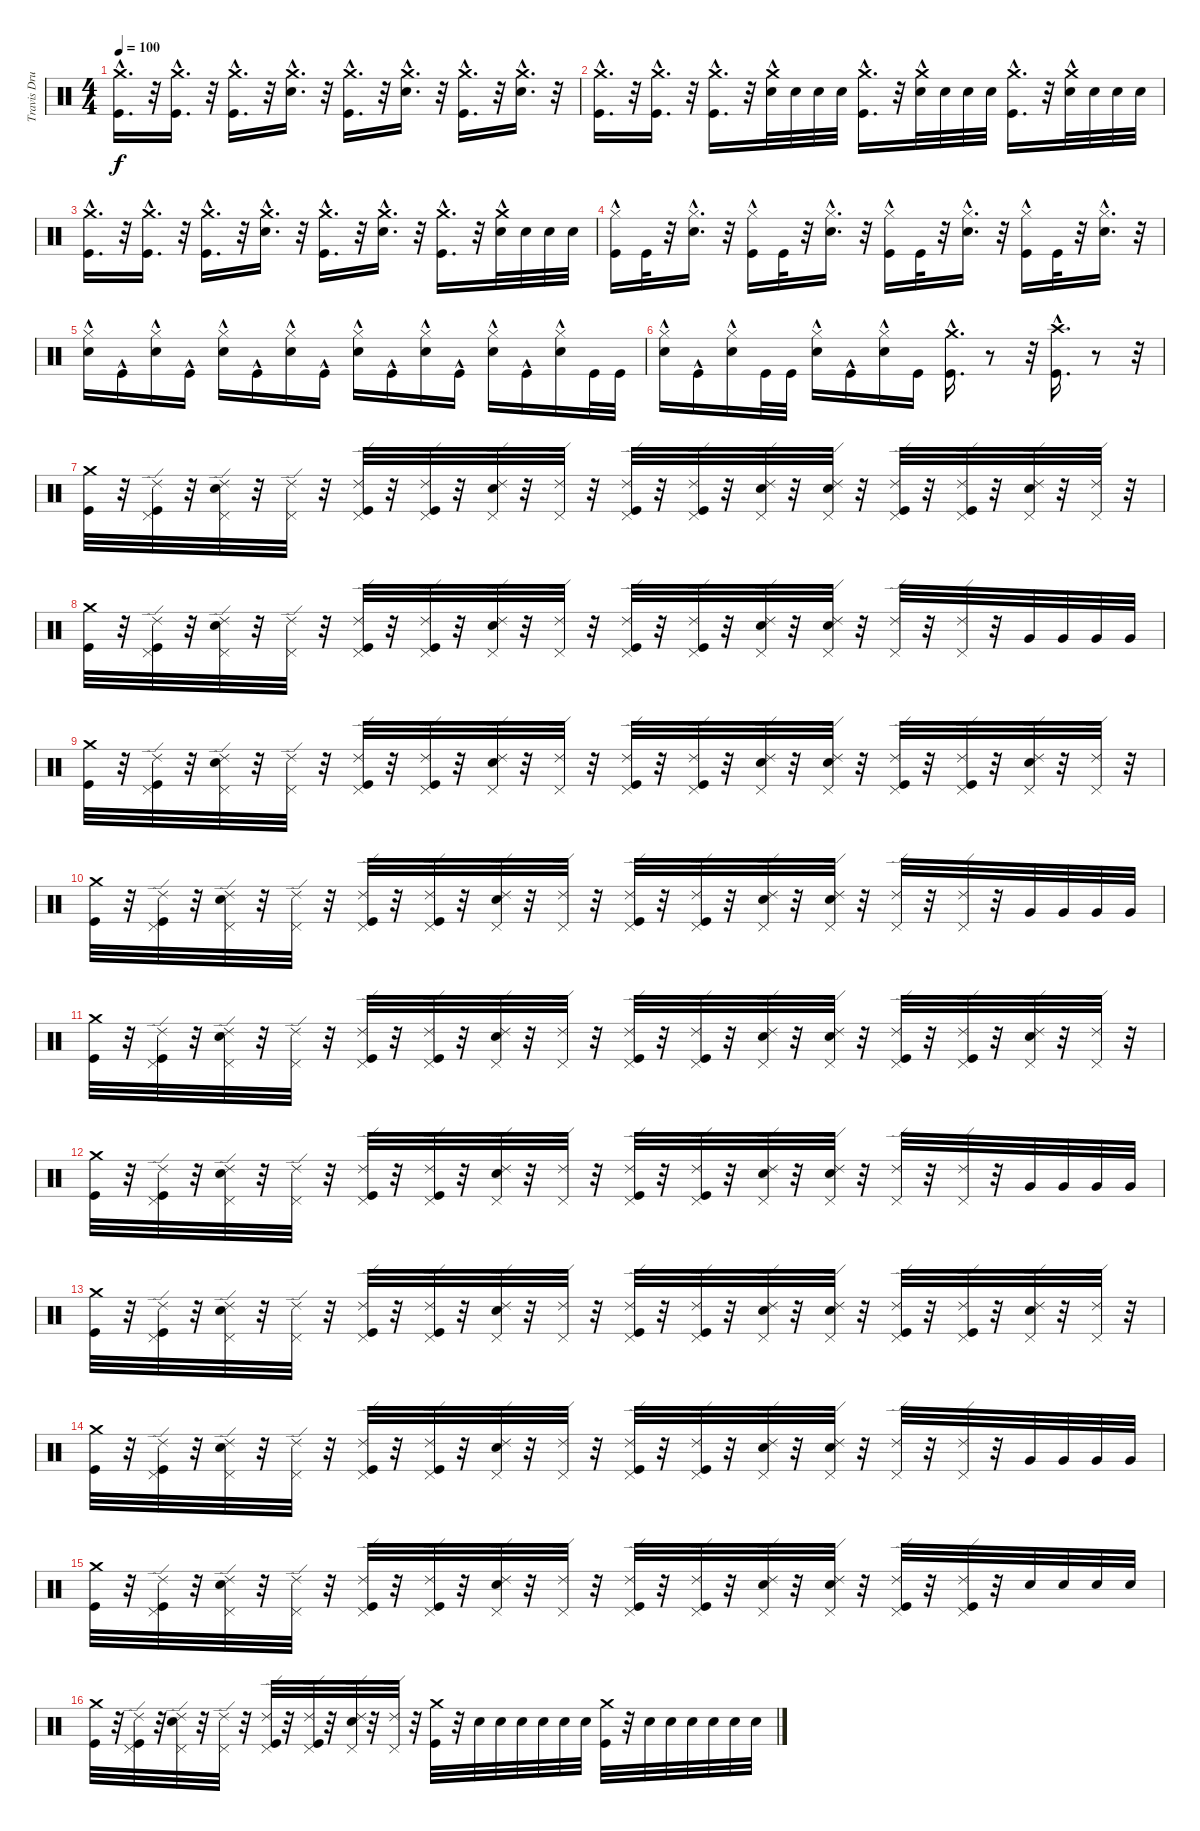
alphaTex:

\track ("Travis Drums" "Travis Dru") {instrument percussion}
\staff {score}
\articulation defaults
\ts (4 4)
\tempo 100
\clef neutral
\ks c
("Kick (hit)"{hac} "Crash medium (hit)"{hac}).16{d dy f} r.32 ("Kick (hit)"{hac} "Crash medium (hit)"{hac}).16{d} r.32 ("Kick (hit)"{hac} "Crash medium (hit)"{hac}).16{d} r.32 ("Snare (hit) 2"{hac} "Crash medium (hit)"{hac}).16{d} r.32 ("Kick (hit)"{hac} "Crash medium (hit)"{hac}).16{d} r.32 ("Snare (hit) 2"{hac} "Crash medium (hit)"{hac}).16{d} r.32 ("Kick (hit)"{hac} "Crash medium (hit)"{hac}).16{d} r.32 ("Snare (hit) 2"{hac} "Crash medium (hit)"{hac}).16{d} r.32 |
("Kick (hit)"{hac} "Crash medium (hit)"{hac}).16{d} r.32 ("Kick (hit)"{hac} "Crash medium (hit)"{hac}).16{d} r.32 ("Kick (hit)"{hac} "Crash medium (hit)"{hac}).16{d} r.32 ("Snare (hit) 2" "Crash medium (hit)"{hac}).32 "Snare (hit) 2".32 "Snare (hit) 2".32 "Snare (hit) 2".32 ("Kick (hit)"{hac} "Crash medium (hit)"{hac}).16{d} r.32 ("Snare (hit) 2" "Crash medium (hit)"{hac}).32 "Snare (hit) 2".32 "Snare (hit) 2".32 "Snare (hit) 2".32 ("Kick (hit)"{hac} "Crash medium (hit)"{hac}).16{d} r.32 ("Snare (hit) 2" "Crash medium (hit)"{hac}).32 "Snare (hit) 2".32 "Snare (hit) 2".32 "Snare (hit) 2".32 |
("Kick (hit)"{hac} "Crash medium (hit)"{hac}).16{d} r.32 ("Kick (hit)"{hac} "Crash medium (hit)"{hac}).16{d} r.32 ("Kick (hit)"{hac} "Crash medium (hit)"{hac}).16{d} r.32 ("Snare (hit) 2"{hac} "Crash medium (hit)"{hac}).16{d} r.32 ("Kick (hit)"{hac} "Crash medium (hit)"{hac}).16{d} r.32 ("Snare (hit) 2"{hac} "Crash medium (hit)"{hac}).16{d} r.32 ("Kick (hit)"{hac} "Crash medium (hit)"{hac}).16{d} r.32 ("Snare (hit) 2" "Crash medium (hit)"{hac}).32 "Snare (hit) 2".32 "Snare (hit) 2".32 "Snare (hit) 2".32 |
("Kick (hit)" "Hi-Hat (closed)"{hac}).16 "Kick (hit)".32 r.32 ("Snare (hit) 2"{hac} "Hi-Hat (closed)"{hac}).16{d} r.32 ("Kick (hit)" "Hi-Hat (closed)"{hac}).16 "Kick (hit)".32 r.32 ("Snare (hit) 2"{hac} "Hi-Hat (closed)"{hac}).16{d} r.32 ("Kick (hit)" "Hi-Hat (closed)"{hac}).16 "Kick (hit)".32 r.32 ("Snare (hit) 2"{hac} "Hi-Hat (closed)"{hac}).16{d} r.32 ("Kick (hit)" "Hi-Hat (closed)"{hac}).16 "Kick (hit)".32 r.32 ("Snare (hit) 2"{hac} "Hi-Hat (closed)"{hac}).16{d} r.32 |
("Snare (hit) 2"{hac} "Hi-Hat (closed)"{hac}).16 "Kick (hit)"{hac}.16 ("Snare (hit) 2"{hac} "Hi-Hat (closed)"{hac}).16 "Kick (hit)"{hac}.16 ("Snare (hit) 2"{hac} "Hi-Hat (closed)"{hac}).16 "Kick (hit)"{hac}.16 ("Snare (hit) 2"{hac} "Hi-Hat (closed)"{hac}).16 "Kick (hit)"{hac}.16 ("Snare (hit) 2"{hac} "Hi-Hat (closed)"{hac}).16 "Kick (hit)"{hac}.16 ("Snare (hit) 2"{hac} "Hi-Hat (closed)"{hac}).16 "Kick (hit)"{hac}.16 ("Hi-Hat (closed)"{hac} "Snare (hit) 2"{hac}).16 "Kick (hit)"{hac}.16 ("Hi-Hat (closed)"{hac} "Snare (hit) 2"{hac}).16 "Kick (hit)".32 "Kick (hit)".32 |
("Snare (hit) 2"{hac} "Hi-Hat (closed)"{hac}).16 "Kick (hit)"{hac}.16 ("Snare (hit) 2"{hac} "Hi-Hat (closed)"{hac}).16 "Kick (hit)".32 "Kick (hit)".32 ("Snare (hit) 2"{hac} "Hi-Hat (closed)"{hac}).16 "Kick (hit)"{hac}.16 ("Snare (hit) 2"{hac} "Hi-Hat (closed)"{hac}).16 "Kick (hit)".16 ("Kick (hit)"{hac} "Crash medium (hit)"{hac}).16{d} r.8 r.32 ("Crash high (hit)"{hac} "Kick (hit)"{hac}).16{d} r.8 r.32 |
("Crash medium (hit)" "Kick (hit)").32 r.32 ("Pedal Hi-Hat (hit)" "Ride (edge) 2" "Kick (hit)").32 r.32 ("Pedal Hi-Hat (hit)" "Ride (edge) 2" "Snare (hit) 2").32 r.32 ("Pedal Hi-Hat (hit)" "Ride (edge) 2").32 r.32 ("Kick (hit)" "Pedal Hi-Hat (hit)" "Ride (edge) 2").32 r.32 ("Kick (hit)" "Pedal Hi-Hat (hit)" "Ride (edge) 2").32 r.32 ("Snare (hit) 2" "Pedal Hi-Hat (hit)" "Ride (edge) 2").32 r.32 ("Pedal Hi-Hat (hit)" "Ride (edge) 2").32 r.32 ("Kick (hit)" "Pedal Hi-Hat (hit)" "Ride (edge) 2").32 r.32 ("Kick (hit)" "Pedal Hi-Hat (hit)" "Ride (edge) 2").32 r.32 ("Snare (hit) 2" "Pedal Hi-Hat (hit)" "Ride (edge) 2").32 r.32 ("Snare (hit) 2" "Pedal Hi-Hat (hit)" "Ride (edge) 2").32 r.32 ("Kick (hit)" "Pedal Hi-Hat (hit)" "Ride (edge) 2").32 r.32 ("Kick (hit)" "Pedal Hi-Hat (hit)" "Ride (edge) 2").32 r.32 ("Snare (hit) 2" "Pedal Hi-Hat (hit)" "Ride (edge) 2").32 r.32 ("Pedal Hi-Hat (hit)" "Ride (edge) 2").32 r.32 |
("Crash medium (hit)" "Kick (hit)").32 r.32 ("Pedal Hi-Hat (hit)" "Ride (edge) 2" "Kick (hit)").32 r.32 ("Pedal Hi-Hat (hit)" "Ride (edge) 2" "Snare (hit) 2").32 r.32 ("Pedal Hi-Hat (hit)" "Ride (edge) 2").32 r.32 ("Kick (hit)" "Pedal Hi-Hat (hit)" "Ride (edge) 2").32 r.32 ("Kick (hit)" "Pedal Hi-Hat (hit)" "Ride (edge) 2").32 r.32 ("Snare (hit) 2" "Pedal Hi-Hat (hit)" "Ride (edge) 2").32 r.32 ("Pedal Hi-Hat (hit)" "Ride (edge) 2").32 r.32 ("Kick (hit)" "Pedal Hi-Hat (hit)" "Ride (edge) 2").32 r.32 ("Kick (hit)" "Pedal Hi-Hat (hit)" "Ride (edge) 2").32 r.32 ("Snare (hit) 2" "Pedal Hi-Hat (hit)" "Ride (edge) 2").32 r.32 ("Snare (hit) 2" "Pedal Hi-Hat (hit)" "Ride (edge) 2").32 r.32 ("Pedal Hi-Hat (hit)" "Ride (edge) 2").32 r.32 ("Pedal Hi-Hat (hit)" "Ride (edge) 2").32 r.32 "Very Low Tom (hit)".32 "Very Low Tom (hit)".32 "Very Low Tom (hit)".32 "Very Low Tom (hit)".32 |
("Crash medium (hit)" "Kick (hit)").32 r.32 ("Pedal Hi-Hat (hit)" "Ride (edge) 2" "Kick (hit)").32 r.32 ("Pedal Hi-Hat (hit)" "Ride (edge) 2" "Snare (hit) 2").32 r.32 ("Pedal Hi-Hat (hit)" "Ride (edge) 2").32 r.32 ("Kick (hit)" "Pedal Hi-Hat (hit)" "Ride (edge) 2").32 r.32 ("Kick (hit)" "Pedal Hi-Hat (hit)" "Ride (edge) 2").32 r.32 ("Snare (hit) 2" "Pedal Hi-Hat (hit)" "Ride (edge) 2").32 r.32 ("Pedal Hi-Hat (hit)" "Ride (edge) 2").32 r.32 ("Kick (hit)" "Pedal Hi-Hat (hit)" "Ride (edge) 2").32 r.32 ("Kick (hit)" "Pedal Hi-Hat (hit)" "Ride (edge) 2").32 r.32 ("Snare (hit) 2" "Pedal Hi-Hat (hit)" "Ride (edge) 2").32 r.32 ("Snare (hit) 2" "Pedal Hi-Hat (hit)" "Ride (edge) 2").32 r.32 ("Kick (hit)" "Pedal Hi-Hat (hit)" "Ride (edge) 2").32 r.32 ("Kick (hit)" "Pedal Hi-Hat (hit)" "Ride (edge) 2").32 r.32 ("Snare (hit) 2" "Pedal Hi-Hat (hit)" "Ride (edge) 2").32 r.32 ("Pedal Hi-Hat (hit)" "Ride (edge) 2").32 r.32 |
("Crash medium (hit)" "Kick (hit)").32 r.32 ("Pedal Hi-Hat (hit)" "Ride (edge) 2" "Kick (hit)").32 r.32 ("Pedal Hi-Hat (hit)" "Ride (edge) 2" "Snare (hit) 2").32 r.32 ("Pedal Hi-Hat (hit)" "Ride (edge) 2").32 r.32 ("Kick (hit)" "Pedal Hi-Hat (hit)" "Ride (edge) 2").32 r.32 ("Kick (hit)" "Pedal Hi-Hat (hit)" "Ride (edge) 2").32 r.32 ("Snare (hit) 2" "Pedal Hi-Hat (hit)" "Ride (edge) 2").32 r.32 ("Pedal Hi-Hat (hit)" "Ride (edge) 2").32 r.32 ("Kick (hit)" "Pedal Hi-Hat (hit)" "Ride (edge) 2").32 r.32 ("Kick (hit)" "Pedal Hi-Hat (hit)" "Ride (edge) 2").32 r.32 ("Snare (hit) 2" "Pedal Hi-Hat (hit)" "Ride (edge) 2").32 r.32 ("Snare (hit) 2" "Pedal Hi-Hat (hit)" "Ride (edge) 2").32 r.32 ("Pedal Hi-Hat (hit)" "Ride (edge) 2").32 r.32 ("Pedal Hi-Hat (hit)" "Ride (edge) 2").32 r.32 "Very Low Tom (hit)".32 "Very Low Tom (hit)".32 "Very Low Tom (hit)".32 "Very Low Tom (hit)".32 |
("Crash medium (hit)" "Kick (hit)").32 r.32 ("Pedal Hi-Hat (hit)" "Ride (edge) 2" "Kick (hit)").32 r.32 ("Pedal Hi-Hat (hit)" "Ride (edge) 2" "Snare (hit) 2").32 r.32 ("Pedal Hi-Hat (hit)" "Ride (edge) 2").32 r.32 ("Kick (hit)" "Pedal Hi-Hat (hit)" "Ride (edge) 2").32 r.32 ("Kick (hit)" "Pedal Hi-Hat (hit)" "Ride (edge) 2").32 r.32 ("Snare (hit) 2" "Pedal Hi-Hat (hit)" "Ride (edge) 2").32 r.32 ("Pedal Hi-Hat (hit)" "Ride (edge) 2").32 r.32 ("Kick (hit)" "Pedal Hi-Hat (hit)" "Ride (edge) 2").32 r.32 ("Kick (hit)" "Pedal Hi-Hat (hit)" "Ride (edge) 2").32 r.32 ("Snare (hit) 2" "Pedal Hi-Hat (hit)" "Ride (edge) 2").32 r.32 ("Snare (hit) 2" "Pedal Hi-Hat (hit)" "Ride (edge) 2").32 r.32 ("Kick (hit)" "Pedal Hi-Hat (hit)" "Ride (edge) 2").32 r.32 ("Kick (hit)" "Pedal Hi-Hat (hit)" "Ride (edge) 2").32 r.32 ("Snare (hit) 2" "Pedal Hi-Hat (hit)" "Ride (edge) 2").32 r.32 ("Pedal Hi-Hat (hit)" "Ride (edge) 2").32 r.32 |
("Crash medium (hit)" "Kick (hit)").32 r.32 ("Pedal Hi-Hat (hit)" "Ride (edge) 2" "Kick (hit)").32 r.32 ("Pedal Hi-Hat (hit)" "Ride (edge) 2" "Snare (hit) 2").32 r.32 ("Pedal Hi-Hat (hit)" "Ride (edge) 2").32 r.32 ("Kick (hit)" "Pedal Hi-Hat (hit)" "Ride (edge) 2").32 r.32 ("Kick (hit)" "Pedal Hi-Hat (hit)" "Ride (edge) 2").32 r.32 ("Snare (hit) 2" "Pedal Hi-Hat (hit)" "Ride (edge) 2").32 r.32 ("Pedal Hi-Hat (hit)" "Ride (edge) 2").32 r.32 ("Kick (hit)" "Pedal Hi-Hat (hit)" "Ride (edge) 2").32 r.32 ("Kick (hit)" "Pedal Hi-Hat (hit)" "Ride (edge) 2").32 r.32 ("Snare (hit) 2" "Pedal Hi-Hat (hit)" "Ride (edge) 2").32 r.32 ("Snare (hit) 2" "Pedal Hi-Hat (hit)" "Ride (edge) 2").32 r.32 ("Pedal Hi-Hat (hit)" "Ride (edge) 2").32 r.32 ("Pedal Hi-Hat (hit)" "Ride (edge) 2").32 r.32 "Very Low Tom (hit)".32 "Very Low Tom (hit)".32 "Very Low Tom (hit)".32 "Very Low Tom (hit)".32 |
("Crash medium (hit)" "Kick (hit)").32 r.32 ("Pedal Hi-Hat (hit)" "Ride (edge) 2" "Kick (hit)").32 r.32 ("Pedal Hi-Hat (hit)" "Ride (edge) 2" "Snare (hit) 2").32 r.32 ("Pedal Hi-Hat (hit)" "Ride (edge) 2").32 r.32 ("Kick (hit)" "Pedal Hi-Hat (hit)" "Ride (edge) 2").32 r.32 ("Kick (hit)" "Pedal Hi-Hat (hit)" "Ride (edge) 2").32 r.32 ("Snare (hit) 2" "Pedal Hi-Hat (hit)" "Ride (edge) 2").32 r.32 ("Pedal Hi-Hat (hit)" "Ride (edge) 2").32 r.32 ("Kick (hit)" "Pedal Hi-Hat (hit)" "Ride (edge) 2").32 r.32 ("Kick (hit)" "Pedal Hi-Hat (hit)" "Ride (edge) 2").32 r.32 ("Snare (hit) 2" "Pedal Hi-Hat (hit)" "Ride (edge) 2").32 r.32 ("Snare (hit) 2" "Pedal Hi-Hat (hit)" "Ride (edge) 2").32 r.32 ("Kick (hit)" "Pedal Hi-Hat (hit)" "Ride (edge) 2").32 r.32 ("Kick (hit)" "Pedal Hi-Hat (hit)" "Ride (edge) 2").32 r.32 ("Snare (hit) 2" "Pedal Hi-Hat (hit)" "Ride (edge) 2").32 r.32 ("Pedal Hi-Hat (hit)" "Ride (edge) 2").32 r.32 |
("Crash medium (hit)" "Kick (hit)").32 r.32 ("Pedal Hi-Hat (hit)" "Ride (edge) 2" "Kick (hit)").32 r.32 ("Pedal Hi-Hat (hit)" "Ride (edge) 2" "Snare (hit) 2").32 r.32 ("Pedal Hi-Hat (hit)" "Ride (edge) 2").32 r.32 ("Kick (hit)" "Pedal Hi-Hat (hit)" "Ride (edge) 2").32 r.32 ("Kick (hit)" "Pedal Hi-Hat (hit)" "Ride (edge) 2").32 r.32 ("Snare (hit) 2" "Pedal Hi-Hat (hit)" "Ride (edge) 2").32 r.32 ("Pedal Hi-Hat (hit)" "Ride (edge) 2").32 r.32 ("Kick (hit)" "Pedal Hi-Hat (hit)" "Ride (edge) 2").32 r.32 ("Kick (hit)" "Pedal Hi-Hat (hit)" "Ride (edge) 2").32 r.32 ("Snare (hit) 2" "Pedal Hi-Hat (hit)" "Ride (edge) 2").32 r.32 ("Snare (hit) 2" "Pedal Hi-Hat (hit)" "Ride (edge) 2").32 r.32 ("Pedal Hi-Hat (hit)" "Ride (edge) 2").32 r.32 ("Pedal Hi-Hat (hit)" "Ride (edge) 2").32 r.32 "Very Low Tom (hit)".32 "Very Low Tom (hit)".32 "Very Low Tom (hit)".32 "Very Low Tom (hit)".32 |
("Crash medium (hit)" "Kick (hit)").32 r.32 ("Pedal Hi-Hat (hit)" "Ride (edge) 2" "Kick (hit)").32 r.32 ("Pedal Hi-Hat (hit)" "Ride (edge) 2" "Snare (hit) 2").32 r.32 ("Pedal Hi-Hat (hit)" "Ride (edge) 2").32 r.32 ("Kick (hit)" "Pedal Hi-Hat (hit)" "Ride (edge) 2").32 r.32 ("Kick (hit)" "Pedal Hi-Hat (hit)" "Ride (edge) 2").32 r.32 ("Snare (hit) 2" "Pedal Hi-Hat (hit)" "Ride (edge) 2").32 r.32 ("Pedal Hi-Hat (hit)" "Ride (edge) 2").32 r.32 ("Kick (hit)" "Pedal Hi-Hat (hit)" "Ride (edge) 2").32 r.32 ("Kick (hit)" "Pedal Hi-Hat (hit)" "Ride (edge) 2").32 r.32 ("Snare (hit) 2" "Pedal Hi-Hat (hit)" "Ride (edge) 2").32 r.32 ("Snare (hit) 2" "Pedal Hi-Hat (hit)" "Ride (edge) 2").32 r.32 ("Kick (hit)" "Pedal Hi-Hat (hit)" "Ride (edge) 2").32 r.32 ("Kick (hit)" "Pedal Hi-Hat (hit)" "Ride (edge) 2").32 r.32 "Snare (hit) 2".32 "Snare (hit) 2".32 "Snare (hit) 2".32 "Snare (hit) 2".32 |
("Crash medium (hit)" "Kick (hit)").32 r.32 ("Pedal Hi-Hat (hit)" "Ride (edge) 2" "Kick (hit)").32 r.32 ("Pedal Hi-Hat (hit)" "Ride (edge) 2" "Snare (hit) 2").32 r.32 ("Pedal Hi-Hat (hit)" "Ride (edge) 2").32 r.32 ("Kick (hit)" "Pedal Hi-Hat (hit)" "Ride (edge) 2").32 r.32 ("Kick (hit)" "Pedal Hi-Hat (hit)" "Ride (edge) 2").32 r.32 ("Snare (hit) 2" "Pedal Hi-Hat (hit)" "Ride (edge) 2").32 r.32 ("Pedal Hi-Hat (hit)" "Ride (edge) 2").32 r.32 ("Crash medium (hit)" "Kick (hit)").32 r.32 "Snare (hit) 2".32 "Snare (hit) 2".32 "Snare (hit) 2".32 "Snare (hit) 2".32 "Snare (hit) 2".32 "Snare (hit) 2".32 ("Crash medium (hit)" "Kick (hit)").32 r.32 "Snare (hit) 2".32 "Snare (hit) 2".32 "Snare (hit) 2".32 "Snare (hit) 2".32 "Snare (hit) 2".32 "Snare (hit) 2".32
